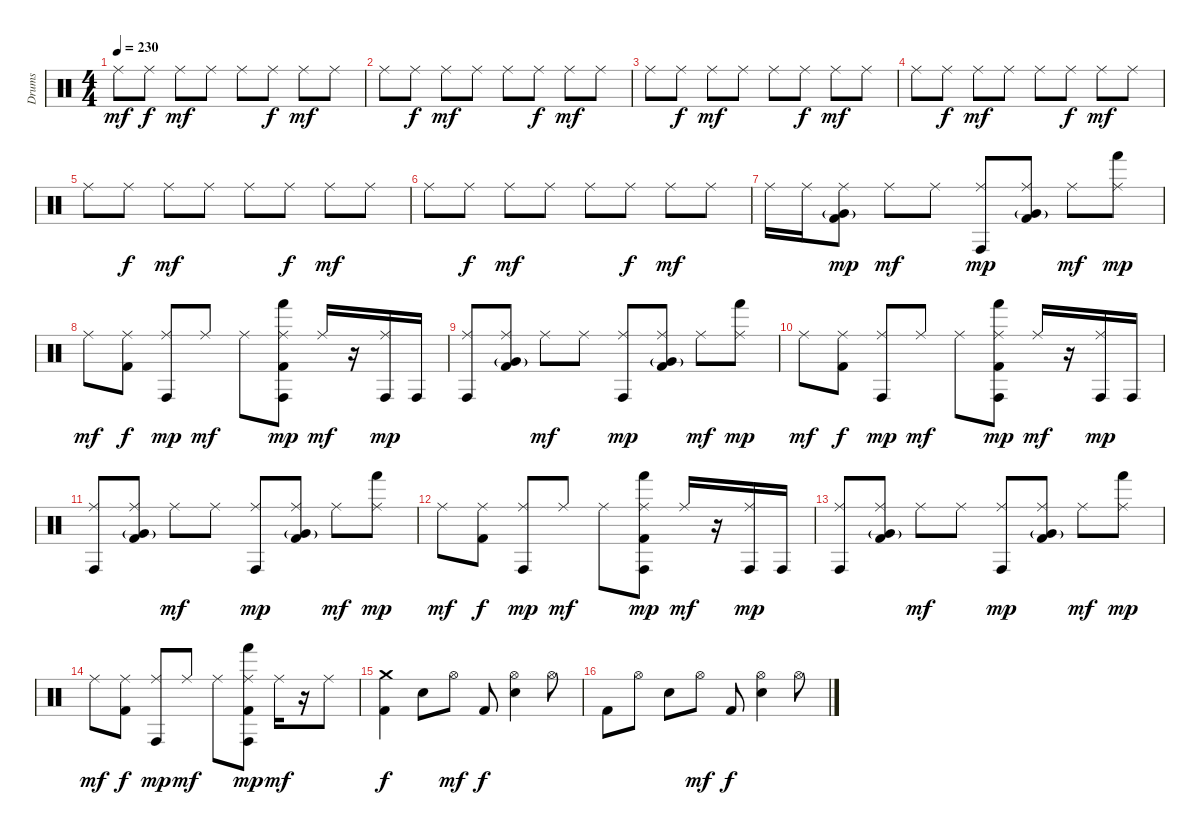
\track ("Drums" "Drums") {instrument percussion}
\staff {score}
\articulation defaults
\ts (4 4)
\tempo 230
\clef neutral
\ks c "Ride (middle)".8{dy mf} "Ride (middle)".8{dy f} "Ride (middle)".8{dy mf} "Ride (middle)".8 "Ride (middle)".8 "Ride (middle)".8{dy f} "Ride (middle)".8{dy mf} "Ride (middle)".8
|
"Ride (middle)".8 "Ride (middle)".8{dy f} "Ride (middle)".8{dy mf} "Ride (middle)".8 "Ride (middle)".8 "Ride (middle)".8{dy f} "Ride (middle)".8{dy mf} "Ride (middle)".8 |
"Ride (middle)".8 "Ride (middle)".8{dy f} "Ride (middle)".8{dy mf} "Ride (middle)".8 "Ride (middle)".8 "Ride (middle)".8{dy f} "Ride (middle)".8{dy mf} "Ride (middle)".8 |
"Ride (middle)".8 "Ride (middle)".8{dy f} "Ride (middle)".8{dy mf} "Ride (middle)".8 "Ride (middle)".8 "Ride (middle)".8{dy f} "Ride (middle)".8{dy mf} "Ride (middle)".8 |
"Ride (middle)".8 "Ride (middle)".8{dy f} "Ride (middle)".8{dy mf} "Ride (middle)".8 "Ride (middle)".8 "Ride (middle)".8{dy f} "Ride (middle)".8{dy mf} "Ride (middle)".8 |
"Ride (middle)".8 "Ride (middle)".8{dy f} "Ride (middle)".8{dy mf} "Ride (middle)".8 "Ride (middle)".8 "Ride (middle)".8{dy f} "Ride (middle)".8{dy mf} "Ride (middle)".8 |
"Ride (middle)".16 "Ride (middle)".16 ("Ride (middle)" "Very Low Tom (hit)"{g} "Kick (hit) 2").8{dy mp} "Ride (middle)".8{dy mf} "Ride (middle)".8 ("Ride (middle)" "Conga high (hit)").8{dy mp} ("Ride (middle)" "Very Low Tom (hit)"{g} "Kick (hit) 2").8 "Ride (middle)".8{dy mf} ("Ride (middle)" "Hand (hit)").8{dy mp} |
"Ride (middle)".8{dy mf} ("Ride (middle)" "Kick (hit) 2").8{dy f} ("Ride (middle)" "Conga high (hit)").8{dy mp} "Ride (middle)".8{dy mf} "Ride (middle)".8 ("Ride (middle)" "Hand (hit)" "Conga high (hit)" "Kick (hit) 2").8{dy mp} "Ride (middle)".16{dy mf} r.16 ("Ride (middle)" "Conga high (hit)").16{dy mp} "Conga high (hit)".16 |
("Ride (middle)" "Conga high (hit)").8 ("Ride (middle)" "Very Low Tom (hit)"{g} "Kick (hit) 2").8 "Ride (middle)".8{dy mf} "Ride (middle)".8 ("Ride (middle)" "Conga high (hit)").8{dy mp} ("Ride (middle)" "Very Low Tom (hit)"{g} "Kick (hit) 2").8 "Ride (middle)".8{dy mf} ("Ride (middle)" "Hand (hit)").8{dy mp} |
"Ride (middle)".8{dy mf} ("Ride (middle)" "Kick (hit) 2").8{dy f} ("Ride (middle)" "Conga high (hit)").8{dy mp} "Ride (middle)".8{dy mf} "Ride (middle)".8 ("Ride (middle)" "Hand (hit)" "Conga high (hit)" "Kick (hit) 2").8{dy mp} "Ride (middle)".16{dy mf} r.16 ("Ride (middle)" "Conga high (hit)").16{dy mp} "Conga high (hit)".16 |
("Ride (middle)" "Conga high (hit)").8 ("Ride (middle)" "Very Low Tom (hit)"{g} "Kick (hit) 2").8 "Ride (middle)".8{dy mf} "Ride (middle)".8 ("Ride (middle)" "Conga high (hit)").8{dy mp} ("Ride (middle)" "Very Low Tom (hit)"{g} "Kick (hit) 2").8 "Ride (middle)".8{dy mf} ("Ride (middle)" "Hand (hit)").8{dy mp} |
"Ride (middle)".8{dy mf} ("Ride (middle)" "Kick (hit) 2").8{dy f} ("Ride (middle)" "Conga high (hit)").8{dy mp} "Ride (middle)".8{dy mf} "Ride (middle)".8 ("Ride (middle)" "Hand (hit)" "Conga high (hit)" "Kick (hit) 2").8{dy mp} "Ride (middle)".16{dy mf} r.16 ("Ride (middle)" "Conga high (hit)").16{dy mp} "Conga high (hit)".16 |
("Ride (middle)" "Conga high (hit)").8 ("Ride (middle)" "Very Low Tom (hit)"{g} "Kick (hit) 2").8 "Ride (middle)".8{dy mf} "Ride (middle)".8 ("Ride (middle)" "Conga high (hit)").8{dy mp} ("Ride (middle)" "Very Low Tom (hit)"{g} "Kick (hit) 2").8 "Ride (middle)".8{dy mf} ("Ride (middle)" "Hand (hit)").8{dy mp} |
"Ride (middle)".8{dy mf} ("Ride (middle)" "Kick (hit) 2").8{dy f} ("Ride (middle)" "Conga high (hit)").8{dy mp} "Ride (middle)".8{dy mf} "Ride (middle)".8 ("Ride (middle)" "Hand (hit)" "Conga high (hit)" "Kick (hit) 2").8{dy mp} "Ride (middle)".16{dy mf} r.16 "Ride (middle)".8 |
("Crash medium (hit)" "Kick (hit) 2").4{dy f} "Electric Snare (hit)".8 "Hi-Hat (open)".8{dy mf} "Kick (hit) 2".8{dy f} ("Hi-Hat (open)" "Electric Snare (hit)").4 "Hi-Hat (open)".8 |
"Kick (hit) 2".8 "Hi-Hat (open)".8 "Electric Snare (hit)".8 "Hi-Hat (open)".8{dy mf} "Kick (hit) 2".8{dy f} ("Hi-Hat (open)" "Electric Snare (hit)").4 "Hi-Hat (open)".8
